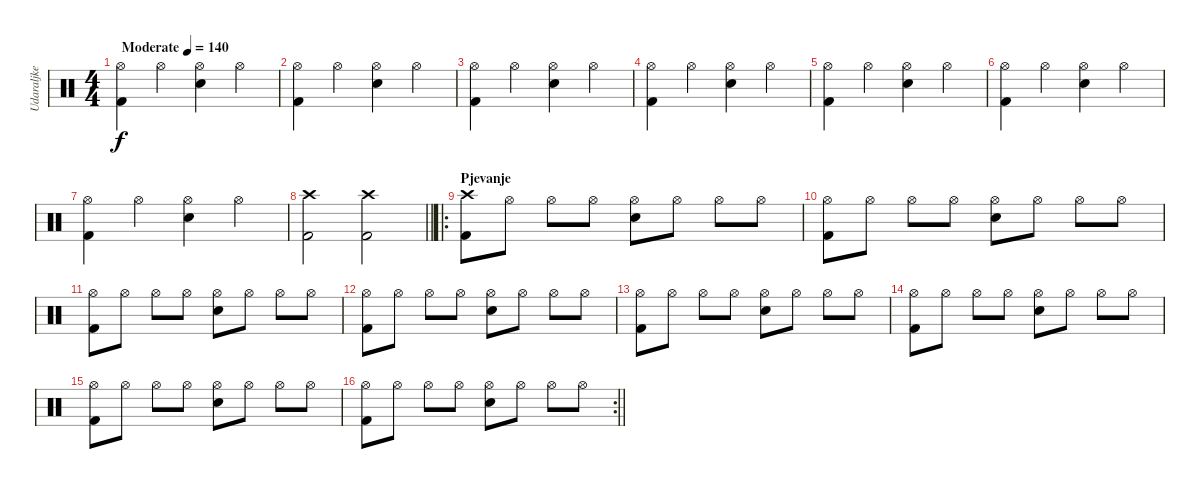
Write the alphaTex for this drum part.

\track ("Udaraljke" "Udaraljke") {instrument percussion}
\staff {score}
\articulation defaults
\ts (4 4)
\tempo (140 "Moderate")
\clef neutral
\ks c
("Hi-Hat (open)" "Kick (hit) 2").4{dy f} "Hi-Hat (open)".4 ("Hi-Hat (open)" "Electric Snare (hit)").4 "Hi-Hat (open)".4 |
("Hi-Hat (open)" "Kick (hit) 2").4 "Hi-Hat (open)".4 ("Hi-Hat (open)" "Electric Snare (hit)").4 "Hi-Hat (open)".4 |
("Hi-Hat (open)" "Kick (hit) 2").4 "Hi-Hat (open)".4 ("Hi-Hat (open)" "Electric Snare (hit)").4 "Hi-Hat (open)".4 |
("Hi-Hat (open)" "Kick (hit) 2").4 "Hi-Hat (open)".4 ("Hi-Hat (open)" "Electric Snare (hit)").4 "Hi-Hat (open)".4 |
("Hi-Hat (open)" "Kick (hit) 2").4 "Hi-Hat (open)".4 ("Hi-Hat (open)" "Electric Snare (hit)").4 "Hi-Hat (open)".4 |
("Hi-Hat (open)" "Kick (hit) 2").4 "Hi-Hat (open)".4 ("Hi-Hat (open)" "Electric Snare (hit)").4 "Hi-Hat (open)".4 |
("Hi-Hat (open)" "Kick (hit) 2").4 "Hi-Hat (open)".4 ("Hi-Hat (open)" "Electric Snare (hit)").4 "Hi-Hat (open)".4 |
\barLineRight lightlight
("Crash high (hit)" "Kick (hit) 2").2 ("Crash high (hit)" "Kick (hit) 2").2 |
\ro
\section ("" "Pjevanje")
("Crash high (hit)" "Kick (hit) 2").8 "Hi-Hat (open)".8 "Hi-Hat (open)".8 "Hi-Hat (open)".8 ("Hi-Hat (open)" "Electric Snare (hit)").8 "Hi-Hat (open)".8 "Hi-Hat (open)".8 "Hi-Hat (open)".8 |
("Hi-Hat (open)" "Kick (hit) 2").8 "Hi-Hat (open)".8 "Hi-Hat (open)".8 "Hi-Hat (open)".8 ("Hi-Hat (open)" "Electric Snare (hit)").8 "Hi-Hat (open)".8 "Hi-Hat (open)".8 "Hi-Hat (open)".8 |
("Hi-Hat (open)" "Kick (hit) 2").8 "Hi-Hat (open)".8 "Hi-Hat (open)".8 "Hi-Hat (open)".8 ("Hi-Hat (open)" "Electric Snare (hit)").8 "Hi-Hat (open)".8 "Hi-Hat (open)".8 "Hi-Hat (open)".8 |
("Hi-Hat (open)" "Kick (hit) 2").8 "Hi-Hat (open)".8 "Hi-Hat (open)".8 "Hi-Hat (open)".8 ("Hi-Hat (open)" "Electric Snare (hit)").8 "Hi-Hat (open)".8 "Hi-Hat (open)".8 "Hi-Hat (open)".8 |
("Hi-Hat (open)" "Kick (hit) 2").8 "Hi-Hat (open)".8 "Hi-Hat (open)".8 "Hi-Hat (open)".8 ("Hi-Hat (open)" "Electric Snare (hit)").8 "Hi-Hat (open)".8 "Hi-Hat (open)".8 "Hi-Hat (open)".8 |
("Hi-Hat (open)" "Kick (hit) 2").8 "Hi-Hat (open)".8 "Hi-Hat (open)".8 "Hi-Hat (open)".8 ("Hi-Hat (open)" "Electric Snare (hit)").8 "Hi-Hat (open)".8 "Hi-Hat (open)".8 "Hi-Hat (open)".8 |
("Hi-Hat (open)" "Kick (hit) 2").8 "Hi-Hat (open)".8 "Hi-Hat (open)".8 "Hi-Hat (open)".8 ("Hi-Hat (open)" "Electric Snare (hit)").8 "Hi-Hat (open)".8 "Hi-Hat (open)".8 "Hi-Hat (open)".8 |
\rc 2
\barLineRight lightlight
("Hi-Hat (open)" "Kick (hit) 2").8 "Hi-Hat (open)".8 "Hi-Hat (open)".8 "Hi-Hat (open)".8 ("Hi-Hat (open)" "Electric Snare (hit)").8 "Hi-Hat (open)".8 "Hi-Hat (open)".8 "Hi-Hat (open)".8
